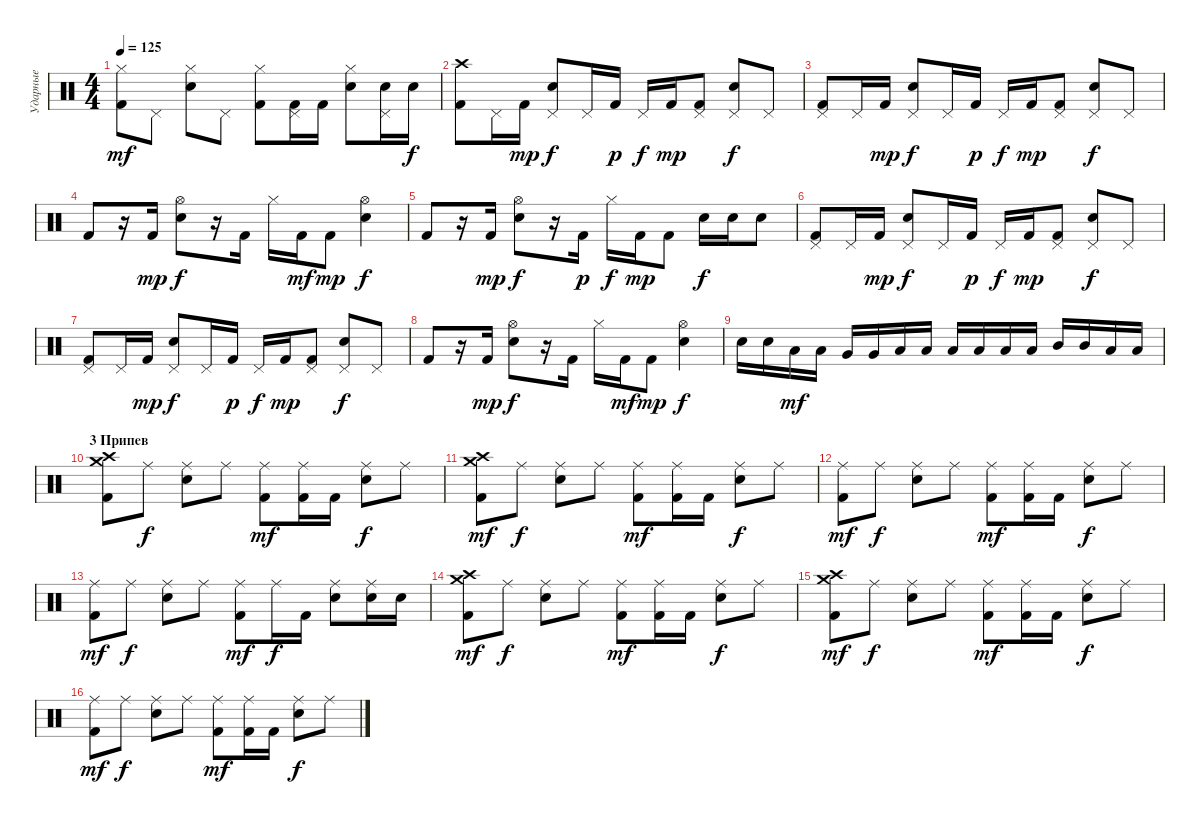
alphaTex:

\track ("Ударные" "Ударные") {instrument percussion}
\staff {score}
\articulation defaults
\ts (4 4)
\tempo 125
\clef neutral
\ks c
("Hi-Hat (closed)" "Kick (hit) 2").8{dy mf} "Pedal Hi-Hat (hit)".8 ("Hi-Hat (closed)" "Snare (hit) 2").8 "Pedal Hi-Hat (hit)".8 ("Hi-Hat (closed)" "Kick (hit) 2").8 ("Pedal Hi-Hat (hit)" "Kick (hit) 2").16 "Kick (hit) 2".16 ("Hi-Hat (closed)" "Snare (hit) 2").8 ("Pedal Hi-Hat (hit)" "Snare (hit) 2").16 "Snare (hit) 2".16{dy f} |
("Crash high (hit)" "Kick (hit) 2").8 "Pedal Hi-Hat (hit)".16 "Kick (hit) 2".16{dy mp} ("Pedal Hi-Hat (hit)" "Snare (hit) 2").8{dy f} "Pedal Hi-Hat (hit)".16 "Kick (hit) 2".16{dy p} "Pedal Hi-Hat (hit)".16{dy f} "Kick (hit) 2".16{dy mp} ("Pedal Hi-Hat (hit)" "Kick (hit) 2").8 ("Pedal Hi-Hat (hit)" "Snare (hit) 2").8{dy f} "Pedal Hi-Hat (hit)".8 |
("Pedal Hi-Hat (hit)" "Kick (hit) 2").8 "Pedal Hi-Hat (hit)".16 "Kick (hit) 2".16{dy mp} ("Pedal Hi-Hat (hit)" "Snare (hit) 2").8{dy f} "Pedal Hi-Hat (hit)".16 "Kick (hit) 2".16{dy p} "Pedal Hi-Hat (hit)".16{dy f} "Kick (hit) 2".16{dy mp} ("Pedal Hi-Hat (hit)" "Kick (hit) 2").8 ("Pedal Hi-Hat (hit)" "Snare (hit) 2").8{dy f} "Pedal Hi-Hat (hit)".8 |
"Kick (hit) 2".8 r.16 "Kick (hit) 2".16{dy mp} ("Hi-Hat (open)" "Snare (hit) 2").8{dy f} r.16 "Kick (hit) 2".16 "Hi-Hat (closed)".16 "Kick (hit) 2".16{dy mf} "Kick (hit) 2".8{dy mp} ("Hi-Hat (open)" "Snare (hit) 2").4{dy f} |
"Kick (hit) 2".8 r.16 "Kick (hit) 2".16{dy mp} ("Hi-Hat (open)" "Snare (hit) 2").8{dy f} r.16 "Kick (hit) 2".16{dy p} "Hi-Hat (closed)".16{dy f} "Kick (hit) 2".16{dy mp} "Kick (hit) 2".8 "Snare (hit) 2".16{dy f} "Snare (hit) 2".16 "Snare (hit) 2".8 |
("Pedal Hi-Hat (hit)" "Kick (hit) 2").8 "Pedal Hi-Hat (hit)".16 "Kick (hit) 2".16{dy mp} ("Pedal Hi-Hat (hit)" "Snare (hit) 2").8{dy f} "Pedal Hi-Hat (hit)".16 "Kick (hit) 2".16{dy p} "Pedal Hi-Hat (hit)".16{dy f} "Kick (hit) 2".16{dy mp} ("Pedal Hi-Hat (hit)" "Kick (hit) 2").8 ("Pedal Hi-Hat (hit)" "Snare (hit) 2").8{dy f} "Pedal Hi-Hat (hit)".8 |
("Pedal Hi-Hat (hit)" "Kick (hit) 2").8 "Pedal Hi-Hat (hit)".16 "Kick (hit) 2".16{dy mp} ("Pedal Hi-Hat (hit)" "Snare (hit) 2").8{dy f} "Pedal Hi-Hat (hit)".16 "Kick (hit) 2".16{dy p} "Pedal Hi-Hat (hit)".16{dy f} "Kick (hit) 2".16{dy mp} ("Pedal Hi-Hat (hit)" "Kick (hit) 2").8 ("Pedal Hi-Hat (hit)" "Snare (hit) 2").8{dy f} "Pedal Hi-Hat (hit)".8 |
"Kick (hit) 2".8 r.16 "Kick (hit) 2".16{dy mp} ("Hi-Hat (open)" "Snare (hit) 2").8{dy f} r.16 "Kick (hit) 2".16 "Hi-Hat (closed)".16 "Kick (hit) 2".16{dy mf} "Kick (hit) 2".8{dy mp} ("Hi-Hat (open)" "Snare (hit) 2").4{dy f} |
"Snare (hit) 2".16 "Snare (hit) 2".16 "Low Floor Tom (hit)".16{dy mf} "Low Floor Tom (hit)".16 "Very Low Tom (hit)".16 "Very Low Tom (hit)".16 "Low Floor Tom (hit)".16 "Low Floor Tom (hit)".16 "Low Tom (hit)".16 "Low Tom (hit)".16 "Low Floor Tom (hit)".16 "Low Floor Tom (hit)".16 "Mid Tom (hit)".16 "Mid Tom (hit)".16 "Low Floor Tom (hit)".16 "Low Floor Tom (hit)".16 |
\section ("" "3 Припев")
("Crash high (hit)" "Crash medium (hit)" "Kick (hit) 2").8 "Ride (middle)".8{dy f} ("Ride (middle)" "Snare (hit) 2").8 "Ride (middle)".8 ("Ride (middle)" "Kick (hit) 2").8{dy mf} ("Ride (middle)" "Kick (hit) 2").16 "Kick (hit) 2".16 ("Ride (middle)" "Snare (hit) 2").8{dy f} "Ride (middle)".8 |
("Crash high (hit)" "Crash medium (hit)" "Kick (hit) 2").8{dy mf} "Ride (middle)".8{dy f} ("Ride (middle)" "Snare (hit) 2").8 "Ride (middle)".8 ("Ride (middle)" "Kick (hit) 2").8{dy mf} ("Ride (middle)" "Kick (hit) 2").16 "Kick (hit) 2".16 ("Ride (middle)" "Snare (hit) 2").8{dy f} "Ride (middle)".8 |
("Ride (middle)" "Kick (hit) 2").8{dy mf} "Ride (middle)".8{dy f} ("Ride (middle)" "Snare (hit) 2").8 "Ride (middle)".8 ("Ride (middle)" "Kick (hit) 2").8{dy mf} ("Ride (middle)" "Kick (hit) 2").16 "Kick (hit) 2".16 ("Ride (middle)" "Snare (hit) 2").8{dy f} "Ride (middle)".8 |
("Ride (middle)" "Kick (hit) 2").8{dy mf} "Ride (middle)".8{dy f} ("Ride (middle)" "Snare (hit) 2").8 "Ride (middle)".8 ("Ride (middle)" "Kick (hit) 2").8{dy mf} "Ride (middle)".16{dy f} "Kick (hit) 2".16 ("Ride (middle)" "Snare (hit) 2").8 ("Ride (middle)" "Snare (hit) 2").16 "Snare (hit) 2".16 |
("Crash high (hit)" "Crash medium (hit)" "Kick (hit) 2").8{dy mf} "Ride (middle)".8{dy f} ("Ride (middle)" "Snare (hit) 2").8 "Ride (middle)".8 ("Ride (middle)" "Kick (hit) 2").8{dy mf} ("Ride (middle)" "Kick (hit) 2").16 "Kick (hit) 2".16 ("Ride (middle)" "Snare (hit) 2").8{dy f} "Ride (middle)".8 |
("Crash high (hit)" "Crash medium (hit)" "Kick (hit) 2").8{dy mf} "Ride (middle)".8{dy f} ("Ride (middle)" "Snare (hit) 2").8 "Ride (middle)".8 ("Ride (middle)" "Kick (hit) 2").8{dy mf} ("Ride (middle)" "Kick (hit) 2").16 "Kick (hit) 2".16 ("Ride (middle)" "Snare (hit) 2").8{dy f} "Ride (middle)".8 |
("Ride (middle)" "Kick (hit) 2").8{dy mf} "Ride (middle)".8{dy f} ("Ride (middle)" "Snare (hit) 2").8 "Ride (middle)".8 ("Ride (middle)" "Kick (hit) 2").8{dy mf} ("Ride (middle)" "Kick (hit) 2").16 "Kick (hit) 2".16 ("Ride (middle)" "Snare (hit) 2").8{dy f} "Ride (middle)".8
